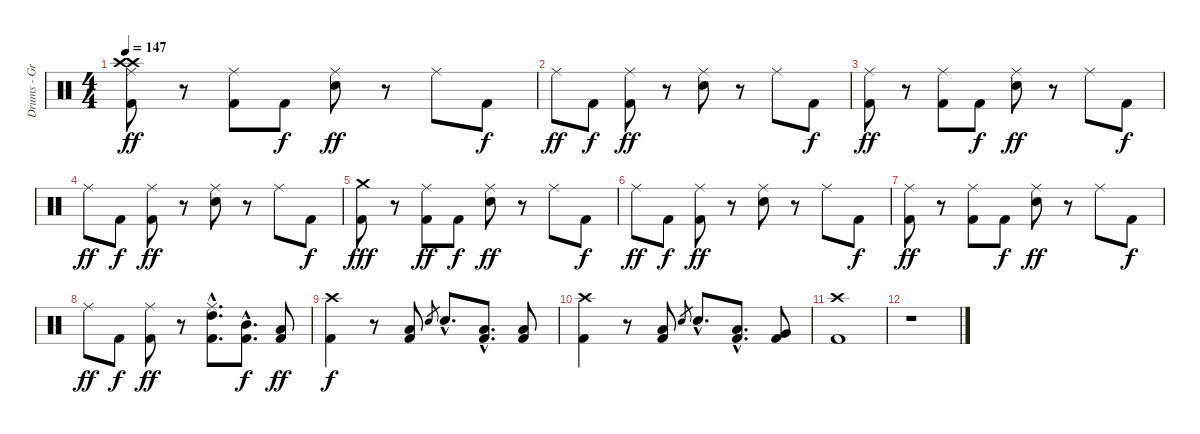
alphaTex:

\track ("Drums - Greg Upchurch" "Drums - Gr") {instrument percussion}
\staff {score}
\articulation defaults
\ts (4 4)
\tempo 147
\clef neutral
\ks c
("Crash high (hit)" "Crash high (hit)" "Ride (middle)" "Kick (hit) 2").8{dy ff} r.8 ("Ride (middle)" "Kick (hit) 2").8 "Kick (hit) 2".8{dy f} ("Ride (middle)" "Electric Snare (hit)").8{dy ff} r.8 "Ride (middle)".8 "Kick (hit) 2".8{dy f} |
"Ride (middle)".8{dy ff} "Kick (hit) 2".8{dy f} ("Ride (middle)" "Kick (hit) 2").8{dy ff} r.8 ("Ride (middle)" "Electric Snare (hit)").8 r.8 "Ride (middle)".8 "Kick (hit) 2".8{dy f} |
("Ride (middle)" "Kick (hit) 2").8{dy ff} r.8 ("Ride (middle)" "Kick (hit) 2").8 "Kick (hit) 2".8{dy f} ("Ride (middle)" "Electric Snare (hit)").8{dy ff} r.8 "Ride (middle)".8 "Kick (hit) 2".8{dy f} |
"Ride (middle)".8{dy ff} "Kick (hit) 2".8{dy f} ("Ride (middle)" "Kick (hit) 2").8{dy ff} r.8 ("Ride (middle)" "Electric Snare (hit)").8 r.8 "Ride (middle)".8 "Kick (hit) 2".8{dy f} |
("Crash medium (hit)" "Kick (hit) 2").8{dy fff} r.8 ("Ride (middle)" "Kick (hit) 2").8{dy ff} "Kick (hit) 2".8{dy f} ("Ride (middle)" "Electric Snare (hit)").8{dy ff} r.8 "Ride (middle)".8 "Kick (hit) 2".8{dy f} |
"Ride (middle)".8{dy ff} "Kick (hit) 2".8{dy f} ("Ride (middle)" "Kick (hit) 2").8{dy ff} r.8 ("Ride (middle)" "Electric Snare (hit)").8 r.8 "Ride (middle)".8 "Kick (hit) 2".8{dy f} |
("Ride (middle)" "Kick (hit) 2").8{dy ff} r.8 ("Ride (middle)" "Kick (hit) 2").8 "Kick (hit) 2".8{dy f} ("Ride (middle)" "Electric Snare (hit)").8{dy ff} r.8 "Ride (middle)".8 "Kick (hit) 2".8{dy f} |
"Ride (middle)".8{dy ff} "Kick (hit) 2".8{dy f} ("Ride (middle)" "Kick (hit) 2").8{dy ff} r.8 ("Ride (middle)"{hac} "High Tom (hit)"{hac} "Kick (hit) 2"{hac}).8{d} ("Mid Tom (hit)"{hac} "Kick (hit) 2"{hac}).8{d dy f} ("Low Tom (hit)" "Kick (hit) 2").8{dy ff} |
("Crash high (hit)" "Kick (hit) 2").4{dy f} r.8 ("Low Tom (hit)" "Kick (hit) 2").8 "Electric Snare (hit)".8{gr} "Electric Snare (hit)"{hac}.8{d} ("Low Tom (hit)"{hac} "Kick (hit) 2"{hac}).8{d} ("Low Tom (hit)" "Kick (hit) 2").8 |
("Crash high (hit)" "Kick (hit) 2").4 r.8 ("Low Tom (hit)" "Kick (hit) 2").8 "Electric Snare (hit)".8{gr} "Electric Snare (hit)"{hac}.8{d} ("Low Tom (hit)"{hac} "Kick (hit) 2"{hac}).8{d} ("Very Low Tom (hit)" "Kick (hit) 2").8 |
("Crash high (hit)" "Kick (hit) 2").1 |
r.1
